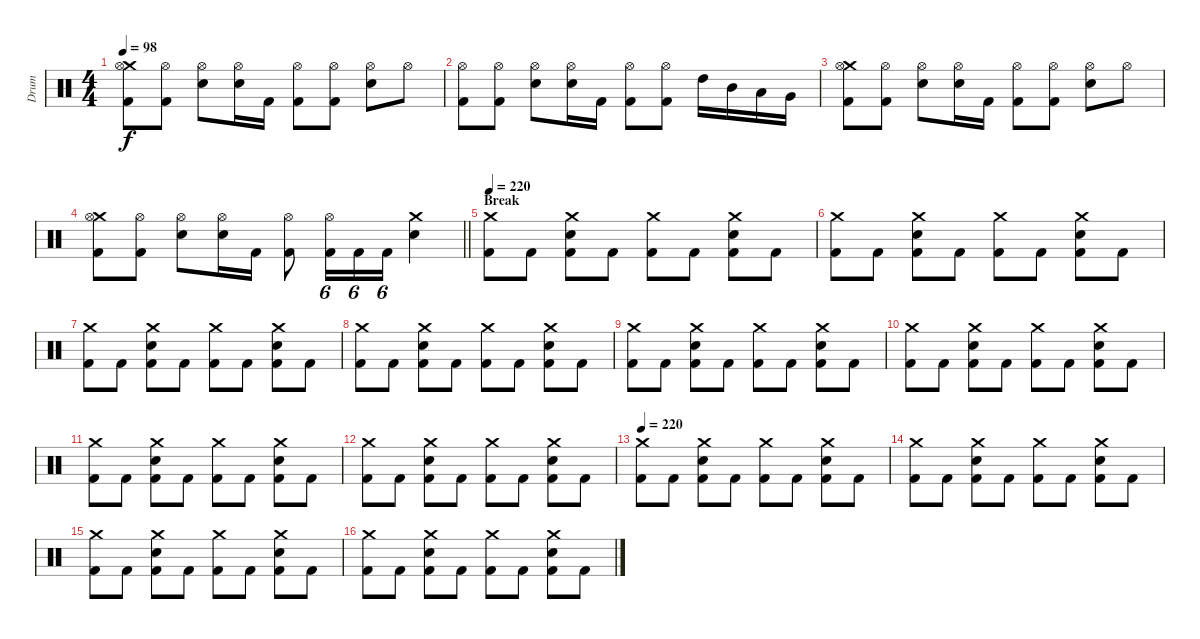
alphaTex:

\track ("Drum" "Drum") {instrument percussion}
\staff {score}
\articulation defaults
\ts (4 4)
\tempo 98
\clef neutral
\ks c
("Crash medium (hit)" "Hi-Hat (open)" "Kick (hit) 2").8{dy f} ("Hi-Hat (open)" "Kick (hit) 2").8 ("Hi-Hat (open)" "Electric Snare (hit)").8 ("Hi-Hat (open)" "Electric Snare (hit)").16 "Kick (hit) 2".16 ("Hi-Hat (open)" "Kick (hit) 2").8 ("Hi-Hat (open)" "Kick (hit) 2").8 ("Hi-Hat (open)" "Electric Snare (hit)").8 "Hi-Hat (open)".8 |
("Hi-Hat (open)" "Kick (hit) 2").8 ("Hi-Hat (open)" "Kick (hit) 2").8 ("Hi-Hat (open)" "Electric Snare (hit)").8 ("Hi-Hat (open)" "Electric Snare (hit)").16 "Kick (hit) 2".16 ("Hi-Hat (open)" "Kick (hit) 2").8 ("Hi-Hat (open)" "Kick (hit) 2").8 "High Tom (hit)".16 "Mid Tom (hit)".16 "Low Tom (hit)".16 "Very Low Tom (hit)".16 |
("Crash medium (hit)" "Hi-Hat (open)" "Kick (hit) 2").8 ("Hi-Hat (open)" "Kick (hit) 2").8 ("Hi-Hat (open)" "Electric Snare (hit)").8 ("Hi-Hat (open)" "Electric Snare (hit)").16 "Kick (hit) 2".16 ("Hi-Hat (open)" "Kick (hit) 2").8 ("Hi-Hat (open)" "Kick (hit) 2").8 ("Hi-Hat (open)" "Electric Snare (hit)").8 "Hi-Hat (open)".8 |
\barLineRight lightlight
("Crash medium (hit)" "Hi-Hat (open)" "Kick (hit) 2").8 ("Hi-Hat (open)" "Kick (hit) 2").8 ("Hi-Hat (open)" "Electric Snare (hit)").8 ("Hi-Hat (open)" "Electric Snare (hit)").16 "Kick (hit) 2".16 ("Hi-Hat (open)" "Kick (hit) 2").8 ("Hi-Hat (open)" "Kick (hit) 2").16{tu (6 4)} "Kick (hit) 2".16{tu (6 4)} "Kick (hit) 2".16{tu (6 4)} ("Crash medium (hit)" "Electric Snare (hit)").4 |
\section ("" "Break")
\tempo 220
("Crash medium (hit)" "Kick (hit) 2").8 "Kick (hit) 2".8 ("Crash medium (hit)" "Electric Snare (hit)" "Kick (hit) 2").8 "Kick (hit) 2".8 ("Crash medium (hit)" "Kick (hit) 2").8 "Kick (hit) 2".8 ("Crash medium (hit)" "Electric Snare (hit)" "Kick (hit) 2").8 "Kick (hit) 2".8 |
("Crash medium (hit)" "Kick (hit) 2").8 "Kick (hit) 2".8 ("Crash medium (hit)" "Electric Snare (hit)" "Kick (hit) 2").8 "Kick (hit) 2".8 ("Crash medium (hit)" "Kick (hit) 2").8 "Kick (hit) 2".8 ("Crash medium (hit)" "Electric Snare (hit)" "Kick (hit) 2").8 "Kick (hit) 2".8 |
("Crash medium (hit)" "Kick (hit) 2").8 "Kick (hit) 2".8 ("Crash medium (hit)" "Electric Snare (hit)" "Kick (hit) 2").8 "Kick (hit) 2".8 ("Crash medium (hit)" "Kick (hit) 2").8 "Kick (hit) 2".8 ("Crash medium (hit)" "Electric Snare (hit)" "Kick (hit) 2").8 "Kick (hit) 2".8 |
("Crash medium (hit)" "Kick (hit) 2").8 "Kick (hit) 2".8 ("Crash medium (hit)" "Electric Snare (hit)" "Kick (hit) 2").8 "Kick (hit) 2".8 ("Crash medium (hit)" "Kick (hit) 2").8 "Kick (hit) 2".8 ("Crash medium (hit)" "Electric Snare (hit)" "Kick (hit) 2").8 "Kick (hit) 2".8 |
("Crash medium (hit)" "Kick (hit) 2").8 "Kick (hit) 2".8 ("Crash medium (hit)" "Electric Snare (hit)" "Kick (hit) 2").8 "Kick (hit) 2".8 ("Crash medium (hit)" "Kick (hit) 2").8 "Kick (hit) 2".8 ("Crash medium (hit)" "Electric Snare (hit)" "Kick (hit) 2").8 "Kick (hit) 2".8 |
("Crash medium (hit)" "Kick (hit) 2").8 "Kick (hit) 2".8 ("Crash medium (hit)" "Electric Snare (hit)" "Kick (hit) 2").8 "Kick (hit) 2".8 ("Crash medium (hit)" "Kick (hit) 2").8 "Kick (hit) 2".8 ("Crash medium (hit)" "Electric Snare (hit)" "Kick (hit) 2").8 "Kick (hit) 2".8 |
("Crash medium (hit)" "Kick (hit) 2").8 "Kick (hit) 2".8 ("Crash medium (hit)" "Electric Snare (hit)" "Kick (hit) 2").8 "Kick (hit) 2".8 ("Crash medium (hit)" "Kick (hit) 2").8 "Kick (hit) 2".8 ("Crash medium (hit)" "Electric Snare (hit)" "Kick (hit) 2").8 "Kick (hit) 2".8 |
("Crash medium (hit)" "Kick (hit) 2").8 "Kick (hit) 2".8 ("Crash medium (hit)" "Electric Snare (hit)" "Kick (hit) 2").8 "Kick (hit) 2".8 ("Crash medium (hit)" "Kick (hit) 2").8 "Kick (hit) 2".8 ("Crash medium (hit)" "Electric Snare (hit)" "Kick (hit) 2").8 "Kick (hit) 2".8 |
\tempo 220
("Crash medium (hit)" "Kick (hit) 2").8 "Kick (hit) 2".8 ("Crash medium (hit)" "Electric Snare (hit)" "Kick (hit) 2").8 "Kick (hit) 2".8 ("Crash medium (hit)" "Kick (hit) 2").8 "Kick (hit) 2".8 ("Crash medium (hit)" "Electric Snare (hit)" "Kick (hit) 2").8 "Kick (hit) 2".8 |
("Crash medium (hit)" "Kick (hit) 2").8 "Kick (hit) 2".8 ("Crash medium (hit)" "Electric Snare (hit)" "Kick (hit) 2").8 "Kick (hit) 2".8 ("Crash medium (hit)" "Kick (hit) 2").8 "Kick (hit) 2".8 ("Crash medium (hit)" "Electric Snare (hit)" "Kick (hit) 2").8 "Kick (hit) 2".8 |
("Crash medium (hit)" "Kick (hit) 2").8 "Kick (hit) 2".8 ("Crash medium (hit)" "Electric Snare (hit)" "Kick (hit) 2").8 "Kick (hit) 2".8 ("Crash medium (hit)" "Kick (hit) 2").8 "Kick (hit) 2".8 ("Crash medium (hit)" "Electric Snare (hit)" "Kick (hit) 2").8 "Kick (hit) 2".8 |
("Crash medium (hit)" "Kick (hit) 2").8 "Kick (hit) 2".8 ("Crash medium (hit)" "Electric Snare (hit)" "Kick (hit) 2").8 "Kick (hit) 2".8 ("Crash medium (hit)" "Kick (hit) 2").8 "Kick (hit) 2".8 ("Crash medium (hit)" "Electric Snare (hit)" "Kick (hit) 2").8 "Kick (hit) 2".8
